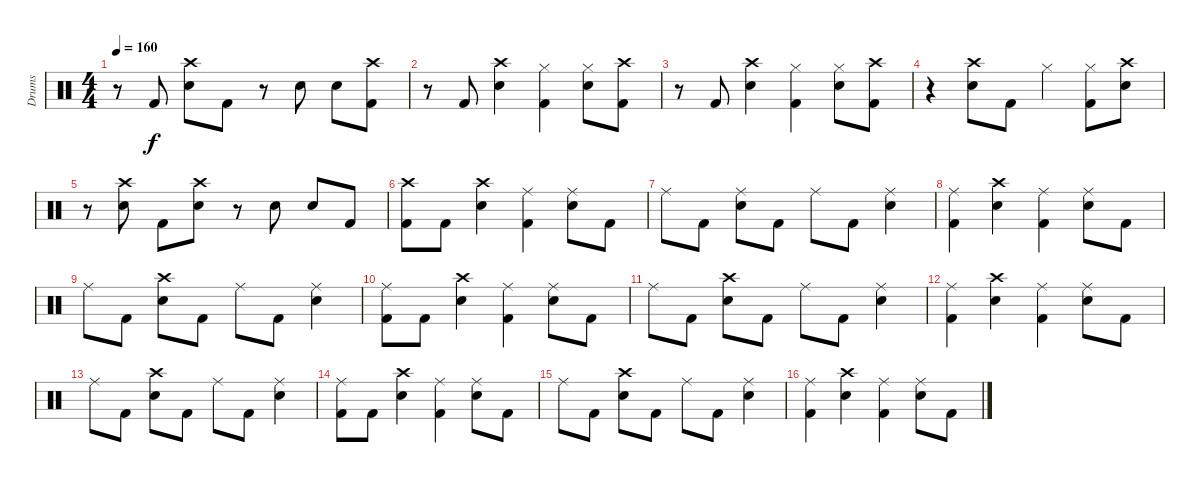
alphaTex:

\track ("Drums" "Drums") {instrument percussion}
\staff {score}
\articulation defaults
\ts (4 4)
\tempo 160
\clef neutral
\ks c
r.8{dy f} "Kick (hit) 2".8 ("Crash high (hit)" "Electric Snare (hit)").8 "Kick (hit) 2".8 r.8 "Electric Snare (hit)".8 "Electric Snare (hit)".8 ("Crash high (hit)" "Kick (hit) 2").8 |
r.8 "Kick (hit) 2".8 ("Crash high (hit)" "Electric Snare (hit)").4 ("Hi-Hat (closed)" "Kick (hit) 2").4 ("Hi-Hat (closed)" "Electric Snare (hit)").8 ("Crash high (hit)" "Kick (hit) 2").8 |
r.8 "Kick (hit) 2".8 ("Crash high (hit)" "Electric Snare (hit)").4 ("Hi-Hat (closed)" "Kick (hit) 2").4 ("Hi-Hat (closed)" "Electric Snare (hit)").8 ("Crash high (hit)" "Kick (hit) 2").8 |
r.4 ("Crash high (hit)" "Electric Snare (hit)").8 "Kick (hit) 2".8 "Hi-Hat (closed)".4 ("Hi-Hat (closed)" "Kick (hit) 2").8 ("Crash high (hit)" "Electric Snare (hit)").8 |
r.8 ("Crash high (hit)" "Electric Snare (hit)").8 "Kick (hit) 2".8 ("Crash high (hit)" "Electric Snare (hit)").8 r.8 "Electric Snare (hit)".8 "Electric Snare (hit)".8 "Kick (hit) 2".8 |
("Crash high (hit)" "Kick (hit) 2").8 "Kick (hit) 2".8 ("Crash high (hit)" "Electric Snare (hit)").4 ("Ride (middle)" "Kick (hit) 2").4 ("Ride (middle)" "Electric Snare (hit)").8 "Kick (hit) 2".8 |
"Ride (middle)".8 "Kick (hit) 2".8 ("Ride (middle)" "Electric Snare (hit)").8 "Kick (hit) 2".8 "Ride (middle)".8 "Kick (hit) 2".8 ("Ride (middle)" "Electric Snare (hit)").4 |
("Ride (middle)" "Kick (hit) 2").4 ("Crash high (hit)" "Electric Snare (hit)").4 ("Ride (middle)" "Kick (hit) 2").4 ("Ride (middle)" "Electric Snare (hit)").8 "Kick (hit) 2".8 |
"Ride (middle)".8 "Kick (hit) 2".8 ("Crash high (hit)" "Electric Snare (hit)").8 "Kick (hit) 2".8 "Ride (middle)".8 "Kick (hit) 2".8 ("Ride (middle)" "Electric Snare (hit)").4 |
("Ride (middle)" "Kick (hit) 2").8 "Kick (hit) 2".8 ("Crash high (hit)" "Electric Snare (hit)").4 ("Ride (middle)" "Kick (hit) 2").4 ("Ride (middle)" "Electric Snare (hit)").8 "Kick (hit) 2".8 |
"Ride (middle)".8 "Kick (hit) 2".8 ("Crash high (hit)" "Electric Snare (hit)").8 "Kick (hit) 2".8 "Ride (middle)".8 "Kick (hit) 2".8 ("Ride (middle)" "Electric Snare (hit)").4 |
("Ride (middle)" "Kick (hit) 2").4 ("Crash high (hit)" "Electric Snare (hit)").4 ("Ride (middle)" "Kick (hit) 2").4 ("Ride (middle)" "Electric Snare (hit)").8 "Kick (hit) 2".8 |
"Ride (middle)".8 "Kick (hit) 2".8 ("Crash high (hit)" "Electric Snare (hit)").8 "Kick (hit) 2".8 "Ride (middle)".8 "Kick (hit) 2".8 ("Ride (middle)" "Electric Snare (hit)").4 |
("Ride (middle)" "Kick (hit) 2").8 "Kick (hit) 2".8 ("Crash high (hit)" "Electric Snare (hit)").4 ("Ride (middle)" "Kick (hit) 2").4 ("Ride (middle)" "Electric Snare (hit)").8 "Kick (hit) 2".8 |
"Ride (middle)".8 "Kick (hit) 2".8 ("Crash high (hit)" "Electric Snare (hit)").8 "Kick (hit) 2".8 "Ride (middle)".8 "Kick (hit) 2".8 ("Ride (middle)" "Electric Snare (hit)").4 |
("Ride (middle)" "Kick (hit) 2").4 ("Crash high (hit)" "Electric Snare (hit)").4 ("Ride (middle)" "Kick (hit) 2").4 ("Ride (middle)" "Electric Snare (hit)").8 "Kick (hit) 2".8
